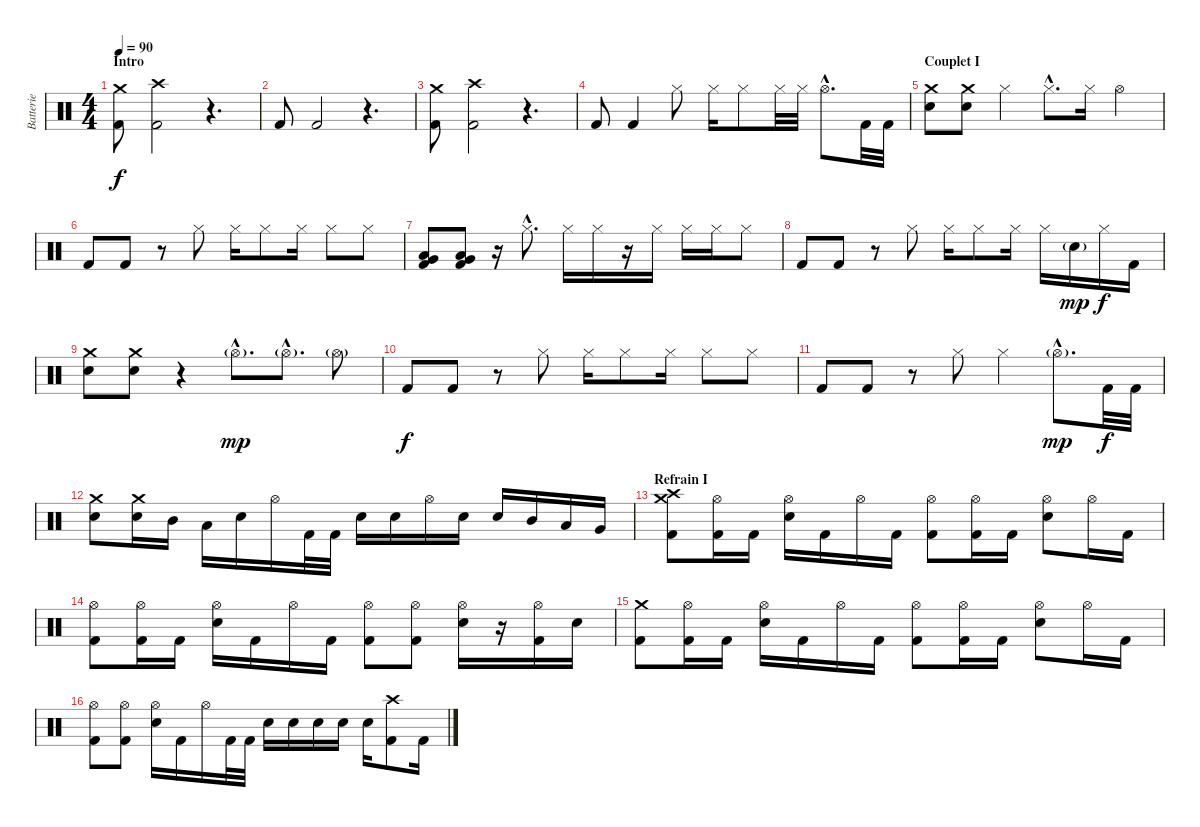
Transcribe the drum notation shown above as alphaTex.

\track ("Batterie" "Batterie") {instrument percussion}
\staff {score}
\articulation defaults
\ts (4 4)
\section ("" "Intro")
\tempo 90
\clef neutral
\ks c
("Crash medium (hit)" "Kick (hit) 2").8{dy f} ("Crash high (hit)" "Kick (hit) 2").2 r.4{d} |
"Kick (hit) 2".8 "Kick (hit) 2".2 r.4{d} |
("Crash medium (hit)" "Kick (hit) 2").8 ("Crash high (hit)" "Kick (hit) 2").2 r.4{d} |
"Kick (hit) 2".8 "Kick (hit) 2".4 "Hi-Hat (closed)".8 "Hi-Hat (closed)".16 "Hi-Hat (closed)".8 "Hi-Hat (closed)".32 "Hi-Hat (closed)".32 "Hi-Hat (open)"{hac}.8{d} "Kick (hit) 2".32 "Kick (hit) 2".32 |
\section ("" "Couplet I")
("Crash medium (hit)" "Electric Snare (hit)").8 ("Crash medium (hit)" "Electric Snare (hit)").8 "Hi-Hat (closed)".4 "Hi-Hat (closed)"{hac}.8{d} "Hi-Hat (closed)".16 "Hi-Hat (open)".4 |
"Kick (hit) 2".8 "Kick (hit) 2".8 r.8 "Hi-Hat (closed)".8 "Hi-Hat (closed)".16 "Hi-Hat (closed)".8 "Hi-Hat (closed)".16 "Hi-Hat (closed)".8 "Hi-Hat (closed)".8 |
("Low Tom (hit)" "Very Low Tom (hit)" "Kick (hit) 2").8 ("Low Tom (hit)" "Very Low Tom (hit)" "Kick (hit) 2").8 r.16 "Hi-Hat (closed)"{hac}.8{d} "Hi-Hat (closed)".16 "Hi-Hat (closed)".16 r.16 "Hi-Hat (closed)".16 "Hi-Hat (closed)".16 "Hi-Hat (closed)".16 "Hi-Hat (closed)".8 |
"Kick (hit) 2".8 "Kick (hit) 2".8 r.8 "Hi-Hat (closed)".8 "Hi-Hat (closed)".16 "Hi-Hat (closed)".8 "Hi-Hat (closed)".16 "Hi-Hat (closed)".16 "Electric Snare (hit)"{g}.16{dy mp} "Hi-Hat (closed)".16{dy f} "Kick (hit) 2".16 |
("Crash medium (hit)" "Electric Snare (hit)").8 ("Crash medium (hit)" "Electric Snare (hit)").8 r.4 "Hi-Hat (open)"{g hac}.8{d dy mp} "Hi-Hat (open)"{g hac}.8{d} "Hi-Hat (open)"{g}.8 |
"Kick (hit) 2".8{dy f} "Kick (hit) 2".8 r.8 "Hi-Hat (closed)".8 "Hi-Hat (closed)".16 "Hi-Hat (closed)".8 "Hi-Hat (closed)".16 "Hi-Hat (closed)".8 "Hi-Hat (closed)".8 |
"Kick (hit) 2".8 "Kick (hit) 2".8 r.8 "Hi-Hat (closed)".8 "Hi-Hat (closed)".4 "Hi-Hat (open)"{g hac}.8{d dy mp} "Kick (hit) 2".32{dy f} "Kick (hit) 2".32 |
("Crash medium (hit)" "Electric Snare (hit)").8 ("Crash medium (hit)" "Electric Snare (hit)").16 "Mid Tom (hit)".16 "Low Tom (hit)".16 "Electric Snare (hit)".16 "Hi-Hat (open)".16 "Kick (hit) 2".32 "Kick (hit) 2".32 "Electric Snare (hit)".16 "Electric Snare (hit)".16 "Hi-Hat (open)".16 "Electric Snare (hit)".16 "Electric Snare (hit)".16 "Mid Tom (hit)".16 "Low Tom (hit)".16 "Very Low Tom (hit)".16 |
\section ("" "Refrain I")
("Crash medium (hit)" "Crash high (hit)" "Kick (hit) 2").8 ("Hi-Hat (open)" "Kick (hit) 2").16 "Kick (hit) 2".16 ("Hi-Hat (open)" "Electric Snare (hit)").16 "Kick (hit) 2".16 "Hi-Hat (open)".16 "Kick (hit) 2".16 ("Hi-Hat (open)" "Kick (hit) 2").8 ("Hi-Hat (open)" "Kick (hit) 2").16 "Kick (hit) 2".16 ("Hi-Hat (open)" "Electric Snare (hit)").8 "Hi-Hat (open)".16 "Kick (hit) 2".16 |
("Hi-Hat (open)" "Kick (hit) 2").8 ("Hi-Hat (open)" "Kick (hit) 2").16 "Kick (hit) 2".16 ("Hi-Hat (open)" "Electric Snare (hit)").16 "Kick (hit) 2".16 "Hi-Hat (open)".16 "Kick (hit) 2".16 ("Hi-Hat (open)" "Kick (hit) 2").8 ("Hi-Hat (open)" "Kick (hit) 2").8 ("Hi-Hat (open)" "Electric Snare (hit)").16 r.16 ("Hi-Hat (open)" "Kick (hit) 2").16 "Electric Snare (hit)".16 |
("Crash medium (hit)" "Kick (hit) 2").8 ("Hi-Hat (open)" "Kick (hit) 2").16 "Kick (hit) 2".16 ("Hi-Hat (open)" "Electric Snare (hit)").16 "Kick (hit) 2".16 "Hi-Hat (open)".16 "Kick (hit) 2".16 ("Hi-Hat (open)" "Kick (hit) 2").8 ("Hi-Hat (open)" "Kick (hit) 2").16 "Kick (hit) 2".16 ("Hi-Hat (open)" "Electric Snare (hit)").8 "Hi-Hat (open)".16 "Kick (hit) 2".16 |
("Hi-Hat (open)" "Kick (hit) 2").8 ("Hi-Hat (open)" "Kick (hit) 2").8 ("Hi-Hat (open)" "Electric Snare (hit)").16 "Kick (hit) 2".16 "Hi-Hat (open)".16 "Kick (hit) 2".32 "Kick (hit) 2".32 "Electric Snare (hit)".16 "Electric Snare (hit)".16 "Electric Snare (hit)".16 "Electric Snare (hit)".16 "Electric Snare (hit)".16 ("Crash high (hit)" "Kick (hit) 2").8 "Kick (hit) 2".16
